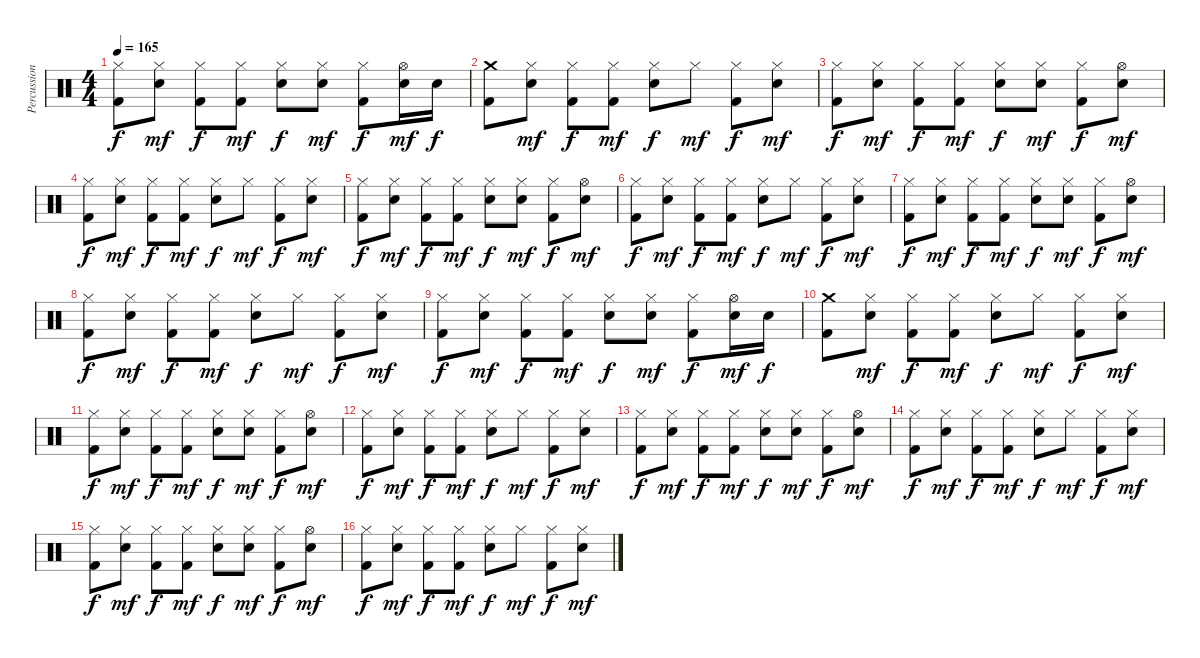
\track ("Percussion" "Percussion") {instrument percussion}
\staff {score}
\articulation defaults
\ts (4 4)
\tempo 165
\clef neutral
\ks c
("Hi-Hat (closed)" "Kick (hit) 2").8{dy f} ("Hi-Hat (closed)" "Snare (hit) 2").8{dy mf} ("Hi-Hat (closed)" "Kick (hit) 2").8{dy f} ("Hi-Hat (closed)" "Kick (hit) 2").8{dy mf} ("Hi-Hat (closed)" "Snare (hit) 2").8{dy f} ("Hi-Hat (closed)" "Snare (hit) 2").8{dy mf} ("Hi-Hat (closed)" "Kick (hit) 2").8{dy f} ("Hi-Hat (open)" "Snare (hit) 2").16{dy mf} "Snare (hit) 2".16{dy f} |
("Crash medium (hit)" "Kick (hit) 2").8 ("Hi-Hat (closed)" "Snare (hit) 2").8{dy mf} ("Hi-Hat (closed)" "Kick (hit) 2").8{dy f} ("Hi-Hat (closed)" "Kick (hit) 2").8{dy mf} ("Hi-Hat (closed)" "Snare (hit) 2").8{dy f} "Hi-Hat (closed)".8{dy mf} ("Hi-Hat (closed)" "Kick (hit) 2").8{dy f} ("Hi-Hat (closed)" "Snare (hit) 2").8{dy mf} |
("Hi-Hat (closed)" "Kick (hit) 2").8{dy f} ("Hi-Hat (closed)" "Snare (hit) 2").8{dy mf} ("Hi-Hat (closed)" "Kick (hit) 2").8{dy f} ("Hi-Hat (closed)" "Kick (hit) 2").8{dy mf} ("Hi-Hat (closed)" "Snare (hit) 2").8{dy f} ("Hi-Hat (closed)" "Snare (hit) 2").8{dy mf} ("Hi-Hat (closed)" "Kick (hit) 2").8{dy f} ("Hi-Hat (open)" "Snare (hit) 2").8{dy mf} |
("Hi-Hat (closed)" "Kick (hit) 2").8{dy f} ("Hi-Hat (closed)" "Snare (hit) 2").8{dy mf} ("Hi-Hat (closed)" "Kick (hit) 2").8{dy f} ("Hi-Hat (closed)" "Kick (hit) 2").8{dy mf} ("Hi-Hat (closed)" "Snare (hit) 2").8{dy f} "Hi-Hat (closed)".8{dy mf} ("Hi-Hat (closed)" "Kick (hit) 2").8{dy f} ("Hi-Hat (closed)" "Snare (hit) 2").8{dy mf} |
("Hi-Hat (closed)" "Kick (hit) 2").8{dy f} ("Hi-Hat (closed)" "Snare (hit) 2").8{dy mf} ("Hi-Hat (closed)" "Kick (hit) 2").8{dy f} ("Hi-Hat (closed)" "Kick (hit) 2").8{dy mf} ("Hi-Hat (closed)" "Snare (hit) 2").8{dy f} ("Hi-Hat (closed)" "Snare (hit) 2").8{dy mf} ("Hi-Hat (closed)" "Kick (hit) 2").8{dy f} ("Hi-Hat (open)" "Snare (hit) 2").8{dy mf} |
("Hi-Hat (closed)" "Kick (hit) 2").8{dy f} ("Hi-Hat (closed)" "Snare (hit) 2").8{dy mf} ("Hi-Hat (closed)" "Kick (hit) 2").8{dy f} ("Hi-Hat (closed)" "Kick (hit) 2").8{dy mf} ("Hi-Hat (closed)" "Snare (hit) 2").8{dy f} "Hi-Hat (closed)".8{dy mf} ("Hi-Hat (closed)" "Kick (hit) 2").8{dy f} ("Hi-Hat (closed)" "Snare (hit) 2").8{dy mf} |
("Hi-Hat (closed)" "Kick (hit) 2").8{dy f} ("Hi-Hat (closed)" "Snare (hit) 2").8{dy mf} ("Hi-Hat (closed)" "Kick (hit) 2").8{dy f} ("Hi-Hat (closed)" "Kick (hit) 2").8{dy mf} ("Hi-Hat (closed)" "Snare (hit) 2").8{dy f} ("Hi-Hat (closed)" "Snare (hit) 2").8{dy mf} ("Hi-Hat (closed)" "Kick (hit) 2").8{dy f} ("Hi-Hat (open)" "Snare (hit) 2").8{dy mf} |
("Hi-Hat (closed)" "Kick (hit) 2").8{dy f} ("Hi-Hat (closed)" "Snare (hit) 2").8{dy mf} ("Hi-Hat (closed)" "Kick (hit) 2").8{dy f} ("Hi-Hat (closed)" "Kick (hit) 2").8{dy mf} ("Hi-Hat (closed)" "Snare (hit) 2").8{dy f} "Hi-Hat (closed)".8{dy mf} ("Hi-Hat (closed)" "Kick (hit) 2").8{dy f} ("Hi-Hat (closed)" "Snare (hit) 2").8{dy mf} |
("Hi-Hat (closed)" "Kick (hit) 2").8{dy f} ("Hi-Hat (closed)" "Snare (hit) 2").8{dy mf} ("Hi-Hat (closed)" "Kick (hit) 2").8{dy f} ("Hi-Hat (closed)" "Kick (hit) 2").8{dy mf} ("Hi-Hat (closed)" "Snare (hit) 2").8{dy f} ("Hi-Hat (closed)" "Snare (hit) 2").8{dy mf} ("Hi-Hat (closed)" "Kick (hit) 2").8{dy f} ("Hi-Hat (open)" "Snare (hit) 2").16{dy mf} "Snare (hit) 2".16{dy f} |
("Crash medium (hit)" "Kick (hit) 2").8 ("Hi-Hat (closed)" "Snare (hit) 2").8{dy mf} ("Hi-Hat (closed)" "Kick (hit) 2").8{dy f} ("Hi-Hat (closed)" "Kick (hit) 2").8{dy mf} ("Hi-Hat (closed)" "Snare (hit) 2").8{dy f} "Hi-Hat (closed)".8{dy mf} ("Hi-Hat (closed)" "Kick (hit) 2").8{dy f} ("Hi-Hat (closed)" "Snare (hit) 2").8{dy mf} |
("Hi-Hat (closed)" "Kick (hit) 2").8{dy f} ("Hi-Hat (closed)" "Snare (hit) 2").8{dy mf} ("Hi-Hat (closed)" "Kick (hit) 2").8{dy f} ("Hi-Hat (closed)" "Kick (hit) 2").8{dy mf} ("Hi-Hat (closed)" "Snare (hit) 2").8{dy f} ("Hi-Hat (closed)" "Snare (hit) 2").8{dy mf} ("Hi-Hat (closed)" "Kick (hit) 2").8{dy f} ("Hi-Hat (open)" "Snare (hit) 2").8{dy mf} |
("Hi-Hat (closed)" "Kick (hit) 2").8{dy f} ("Hi-Hat (closed)" "Snare (hit) 2").8{dy mf} ("Hi-Hat (closed)" "Kick (hit) 2").8{dy f} ("Hi-Hat (closed)" "Kick (hit) 2").8{dy mf} ("Hi-Hat (closed)" "Snare (hit) 2").8{dy f} "Hi-Hat (closed)".8{dy mf} ("Hi-Hat (closed)" "Kick (hit) 2").8{dy f} ("Hi-Hat (closed)" "Snare (hit) 2").8{dy mf} |
("Hi-Hat (closed)" "Kick (hit) 2").8{dy f} ("Hi-Hat (closed)" "Snare (hit) 2").8{dy mf} ("Hi-Hat (closed)" "Kick (hit) 2").8{dy f} ("Hi-Hat (closed)" "Kick (hit) 2").8{dy mf} ("Hi-Hat (closed)" "Snare (hit) 2").8{dy f} ("Hi-Hat (closed)" "Snare (hit) 2").8{dy mf} ("Hi-Hat (closed)" "Kick (hit) 2").8{dy f} ("Hi-Hat (open)" "Snare (hit) 2").8{dy mf} |
("Hi-Hat (closed)" "Kick (hit) 2").8{dy f} ("Hi-Hat (closed)" "Snare (hit) 2").8{dy mf} ("Hi-Hat (closed)" "Kick (hit) 2").8{dy f} ("Hi-Hat (closed)" "Kick (hit) 2").8{dy mf} ("Hi-Hat (closed)" "Snare (hit) 2").8{dy f} "Hi-Hat (closed)".8{dy mf} ("Hi-Hat (closed)" "Kick (hit) 2").8{dy f} ("Hi-Hat (closed)" "Snare (hit) 2").8{dy mf} |
("Hi-Hat (closed)" "Kick (hit) 2").8{dy f} ("Hi-Hat (closed)" "Snare (hit) 2").8{dy mf} ("Hi-Hat (closed)" "Kick (hit) 2").8{dy f} ("Hi-Hat (closed)" "Kick (hit) 2").8{dy mf} ("Hi-Hat (closed)" "Snare (hit) 2").8{dy f} ("Hi-Hat (closed)" "Snare (hit) 2").8{dy mf} ("Hi-Hat (closed)" "Kick (hit) 2").8{dy f} ("Hi-Hat (open)" "Snare (hit) 2").8{dy mf} |
("Hi-Hat (closed)" "Kick (hit) 2").8{dy f} ("Hi-Hat (closed)" "Snare (hit) 2").8{dy mf} ("Hi-Hat (closed)" "Kick (hit) 2").8{dy f} ("Hi-Hat (closed)" "Kick (hit) 2").8{dy mf} ("Hi-Hat (closed)" "Snare (hit) 2").8{dy f} "Hi-Hat (closed)".8{dy mf} ("Hi-Hat (closed)" "Kick (hit) 2").8{dy f} ("Hi-Hat (closed)" "Snare (hit) 2").8{dy mf}
